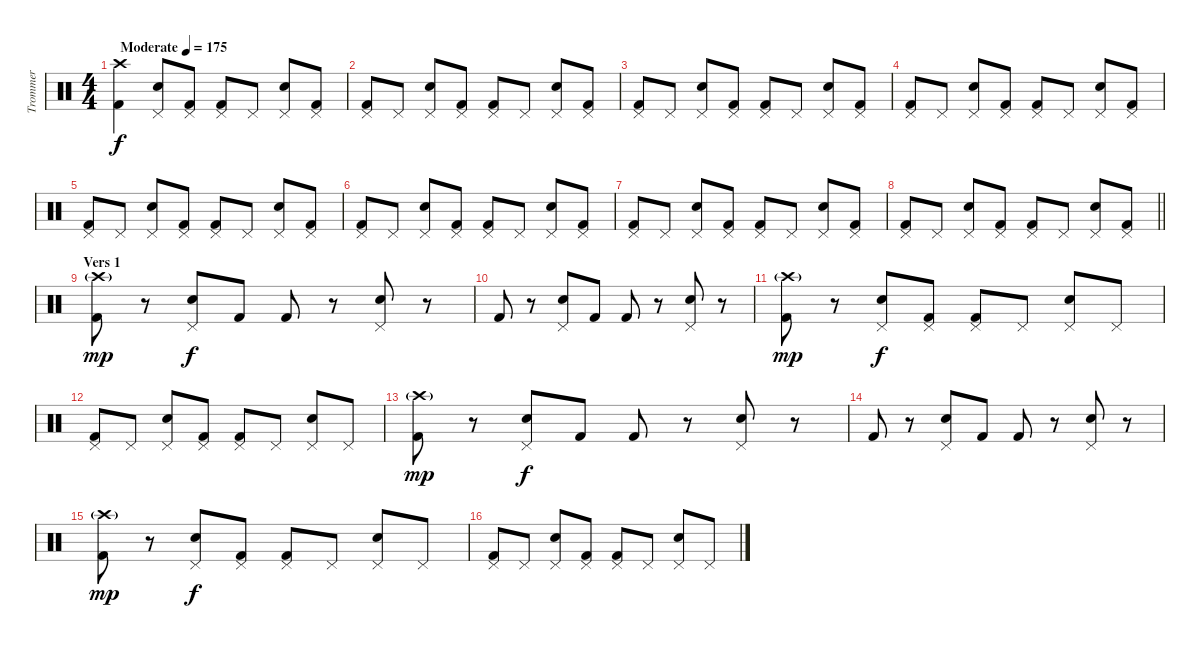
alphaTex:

\track ("Trommer" "Trommer") {instrument percussion}
\staff {score}
\articulation defaults
\ts (4 4)
\tempo (175 "Moderate")
\clef neutral
\ks c
("Crash high (hit)" "Kick (hit) 2").4{dy f} ("Pedal Hi-Hat (hit)" "Electric Snare (hit)").8 ("Pedal Hi-Hat (hit)" "Kick (hit) 2").8 ("Pedal Hi-Hat (hit)" "Kick (hit) 2").8 "Pedal Hi-Hat (hit)".8 ("Pedal Hi-Hat (hit)" "Electric Snare (hit)").8 ("Pedal Hi-Hat (hit)" "Kick (hit) 2").8 |
("Pedal Hi-Hat (hit)" "Kick (hit) 2").8 "Pedal Hi-Hat (hit)".8 ("Pedal Hi-Hat (hit)" "Electric Snare (hit)").8 ("Pedal Hi-Hat (hit)" "Kick (hit) 2").8 ("Pedal Hi-Hat (hit)" "Kick (hit) 2").8 "Pedal Hi-Hat (hit)".8 ("Pedal Hi-Hat (hit)" "Electric Snare (hit)").8 ("Pedal Hi-Hat (hit)" "Kick (hit) 2").8 |
("Pedal Hi-Hat (hit)" "Kick (hit) 2").8 "Pedal Hi-Hat (hit)".8 ("Pedal Hi-Hat (hit)" "Electric Snare (hit)").8 ("Pedal Hi-Hat (hit)" "Kick (hit) 2").8 ("Pedal Hi-Hat (hit)" "Kick (hit) 2").8 "Pedal Hi-Hat (hit)".8 ("Pedal Hi-Hat (hit)" "Electric Snare (hit)").8 ("Pedal Hi-Hat (hit)" "Kick (hit) 2").8 |
("Pedal Hi-Hat (hit)" "Kick (hit) 2").8 "Pedal Hi-Hat (hit)".8 ("Pedal Hi-Hat (hit)" "Electric Snare (hit)").8 ("Pedal Hi-Hat (hit)" "Kick (hit) 2").8 ("Pedal Hi-Hat (hit)" "Kick (hit) 2").8 "Pedal Hi-Hat (hit)".8 ("Pedal Hi-Hat (hit)" "Electric Snare (hit)").8 ("Pedal Hi-Hat (hit)" "Kick (hit) 2").8 |
("Pedal Hi-Hat (hit)" "Kick (hit) 2").8 "Pedal Hi-Hat (hit)".8 ("Pedal Hi-Hat (hit)" "Electric Snare (hit)").8 ("Pedal Hi-Hat (hit)" "Kick (hit) 2").8 ("Pedal Hi-Hat (hit)" "Kick (hit) 2").8 "Pedal Hi-Hat (hit)".8 ("Pedal Hi-Hat (hit)" "Electric Snare (hit)").8 ("Pedal Hi-Hat (hit)" "Kick (hit) 2").8 |
("Pedal Hi-Hat (hit)" "Kick (hit) 2").8 "Pedal Hi-Hat (hit)".8 ("Pedal Hi-Hat (hit)" "Electric Snare (hit)").8 ("Pedal Hi-Hat (hit)" "Kick (hit) 2").8 ("Pedal Hi-Hat (hit)" "Kick (hit) 2").8 "Pedal Hi-Hat (hit)".8 ("Pedal Hi-Hat (hit)" "Electric Snare (hit)").8 ("Pedal Hi-Hat (hit)" "Kick (hit) 2").8 |
("Pedal Hi-Hat (hit)" "Kick (hit) 2").8 "Pedal Hi-Hat (hit)".8 ("Pedal Hi-Hat (hit)" "Electric Snare (hit)").8 ("Pedal Hi-Hat (hit)" "Kick (hit) 2").8 ("Pedal Hi-Hat (hit)" "Kick (hit) 2").8 "Pedal Hi-Hat (hit)".8 ("Pedal Hi-Hat (hit)" "Electric Snare (hit)").8 ("Pedal Hi-Hat (hit)" "Kick (hit) 2").8 |
\barLineRight lightlight
("Pedal Hi-Hat (hit)" "Kick (hit) 2").8 "Pedal Hi-Hat (hit)".8 ("Pedal Hi-Hat (hit)" "Electric Snare (hit)").8 ("Pedal Hi-Hat (hit)" "Kick (hit) 2").8 ("Pedal Hi-Hat (hit)" "Kick (hit) 2").8 "Pedal Hi-Hat (hit)".8 ("Pedal Hi-Hat (hit)" "Electric Snare (hit)").8 ("Pedal Hi-Hat (hit)" "Kick (hit) 2").8 |
\section ("" "Vers 1")
("Crash high (hit)"{g} "Kick (hit) 2").8{dy mp} r.8 ("Pedal Hi-Hat (hit)" "Electric Snare (hit)").8{dy f} "Kick (hit) 2".8 "Kick (hit) 2".8 r.8 ("Pedal Hi-Hat (hit)" "Electric Snare (hit)").8 r.8 |
"Kick (hit) 2".8 r.8 ("Pedal Hi-Hat (hit)" "Electric Snare (hit)").8 "Kick (hit) 2".8 "Kick (hit) 2".8 r.8 ("Pedal Hi-Hat (hit)" "Electric Snare (hit)").8 r.8 |
("Crash high (hit)"{g} "Kick (hit) 2").8{dy mp} r.8 ("Pedal Hi-Hat (hit)" "Electric Snare (hit)").8{dy f} ("Pedal Hi-Hat (hit)" "Kick (hit) 2").8 ("Pedal Hi-Hat (hit)" "Kick (hit) 2").8 "Pedal Hi-Hat (hit)".8 ("Pedal Hi-Hat (hit)" "Electric Snare (hit)").8 "Pedal Hi-Hat (hit)".8 |
("Pedal Hi-Hat (hit)" "Kick (hit) 2").8 "Pedal Hi-Hat (hit)".8 ("Pedal Hi-Hat (hit)" "Electric Snare (hit)").8 ("Pedal Hi-Hat (hit)" "Kick (hit) 2").8 ("Pedal Hi-Hat (hit)" "Kick (hit) 2").8 "Pedal Hi-Hat (hit)".8 ("Pedal Hi-Hat (hit)" "Electric Snare (hit)").8 "Pedal Hi-Hat (hit)".8 |
("Crash high (hit)"{g} "Kick (hit) 2").8{dy mp} r.8 ("Pedal Hi-Hat (hit)" "Electric Snare (hit)").8{dy f} "Kick (hit) 2".8 "Kick (hit) 2".8 r.8 ("Pedal Hi-Hat (hit)" "Electric Snare (hit)").8 r.8 |
"Kick (hit) 2".8 r.8 ("Pedal Hi-Hat (hit)" "Electric Snare (hit)").8 "Kick (hit) 2".8 "Kick (hit) 2".8 r.8 ("Pedal Hi-Hat (hit)" "Electric Snare (hit)").8 r.8 |
("Crash high (hit)"{g} "Kick (hit) 2").8{dy mp} r.8 ("Pedal Hi-Hat (hit)" "Electric Snare (hit)").8{dy f} ("Pedal Hi-Hat (hit)" "Kick (hit) 2").8 ("Pedal Hi-Hat (hit)" "Kick (hit) 2").8 "Pedal Hi-Hat (hit)".8 ("Pedal Hi-Hat (hit)" "Electric Snare (hit)").8 "Pedal Hi-Hat (hit)".8 |
("Pedal Hi-Hat (hit)" "Kick (hit) 2").8 "Pedal Hi-Hat (hit)".8 ("Pedal Hi-Hat (hit)" "Electric Snare (hit)").8 ("Pedal Hi-Hat (hit)" "Kick (hit) 2").8 ("Pedal Hi-Hat (hit)" "Kick (hit) 2").8 "Pedal Hi-Hat (hit)".8 ("Pedal Hi-Hat (hit)" "Electric Snare (hit)").8 "Pedal Hi-Hat (hit)".8
